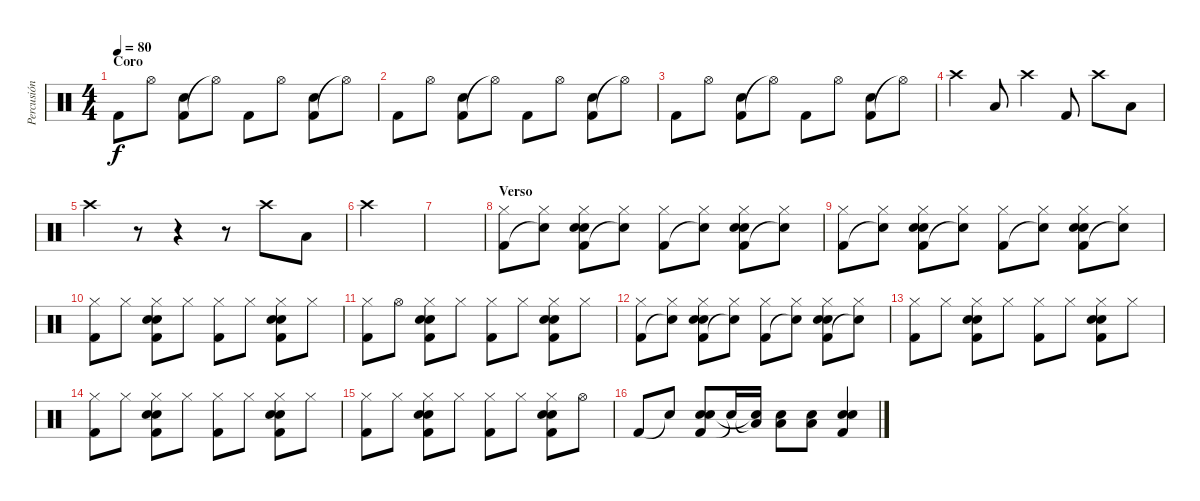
\track ("Percusión" "Percusión") {instrument percussion}
\staff {score}
\articulation defaults
\ts (4 4)
\section ("" "Coro")
\tempo 80
\clef neutral
\ks c "Kick (hit) 2".8{dy f} "Hi-Hat (open)".8
("Kick (hit) 2" "Hand Clap (hit)").8 "Hi-Hat (open)"{t}.8 "Kick (hit) 2".8 "Hi-Hat (open)".8 ("Kick (hit) 2" "Hand Clap (hit)").8 "Hi-Hat (open)"{t}.8 |
"Kick (hit) 2".8 "Hi-Hat (open)".8 ("Kick (hit) 2" "Hand Clap (hit)").8 "Hi-Hat (open)"{t}.8 "Kick (hit) 2".8 "Hi-Hat (open)".8 ("Kick (hit) 2" "Hand Clap (hit)").8 "Hi-Hat (open)"{t}.8 |
"Kick (hit) 2".8 "Hi-Hat (open)".8 ("Kick (hit) 2" "Hand Clap (hit)").8 "Hi-Hat (open)"{t}.8 "Kick (hit) 2".8 "Hi-Hat (open)".8 ("Kick (hit) 2" "Hand Clap (hit)").8 "Hi-Hat (open)"{t}.8 |
"Crash high (hit)".4 "Low Floor Tom (hit)".8 "Crash high (hit)".4 "Kick (hit) 2".8 "Crash high (hit)".8 "Low Tom (hit)".8 |
"Crash high (hit)".4 r.8 r.4 r.8 "Crash high (hit)".8 "Low Tom (hit)".8 |
"Crash high (hit)".2 |
|
\section ("" "Verso")
("Hi-Hat (closed)" "Kick (hit) 2").8 ("Hi-Hat (closed)" "Snare (hit)"{t}).8 ("Hi-Hat (closed)" "Kick (hit) 2" "Electric Snare (hit)" "Hand Clap (hit)").8 ("Hi-Hat (closed)" "Snare (hit)"{t}).8 ("Hi-Hat (closed)" "Kick (hit) 2").8 ("Hi-Hat (closed)" "Snare (hit)"{t}).8 ("Hi-Hat (closed)" "Kick (hit) 2" "Electric Snare (hit)" "Hand Clap (hit)").8 ("Hi-Hat (closed)" "Snare (hit)"{t}).8 |
("Hi-Hat (closed)" "Kick (hit) 2").8 ("Hi-Hat (closed)" "Snare (hit)"{t}).8 ("Hi-Hat (closed)" "Kick (hit) 2" "Electric Snare (hit)" "Hand Clap (hit)").8 ("Hi-Hat (closed)" "Snare (hit)"{t}).8 ("Hi-Hat (closed)" "Kick (hit) 2").8 ("Hi-Hat (closed)" "Snare (hit)"{t}).8 ("Hi-Hat (closed)" "Kick (hit) 2" "Electric Snare (hit)" "Hand Clap (hit)").8 ("Hi-Hat (closed)" "Snare (hit)"{t}).8 |
("Hi-Hat (closed)" "Kick (hit) 2").8 "Hi-Hat (closed)".8 ("Hi-Hat (closed)" "Kick (hit) 2" "Electric Snare (hit)" "Hand Clap (hit)").8 "Hi-Hat (closed)".8 ("Hi-Hat (closed)" "Kick (hit) 2").8 "Hi-Hat (closed)".8 ("Hi-Hat (closed)" "Kick (hit) 2" "Electric Snare (hit)" "Hand Clap (hit)").8 "Hi-Hat (closed)".8 |
("Hi-Hat (closed)" "Kick (hit) 2").8 "Hi-Hat (open)".8 ("Hi-Hat (closed)" "Kick (hit) 2" "Electric Snare (hit)" "Hand Clap (hit)").8 "Hi-Hat (closed)".8 ("Hi-Hat (closed)" "Kick (hit) 2").8 "Hi-Hat (closed)".8 ("Hi-Hat (closed)" "Kick (hit) 2" "Electric Snare (hit)" "Hand Clap (hit)").8 "Hi-Hat (closed)".8 |
("Hi-Hat (closed)" "Kick (hit) 2").8 ("Hi-Hat (closed)" "Snare (hit)"{t}).8 ("Hi-Hat (closed)" "Kick (hit) 2" "Electric Snare (hit)" "Hand Clap (hit)").8 ("Hi-Hat (closed)" "Snare (hit)"{t}).8 ("Hi-Hat (closed)" "Kick (hit) 2").8 ("Hi-Hat (closed)" "Snare (hit)"{t}).8 ("Hi-Hat (closed)" "Kick (hit) 2" "Electric Snare (hit)" "Hand Clap (hit)").8 ("Hi-Hat (closed)" "Snare (hit)"{t}).8 |
("Hi-Hat (closed)" "Kick (hit) 2").8 "Hi-Hat (closed)".8 ("Hi-Hat (closed)" "Kick (hit) 2" "Electric Snare (hit)" "Hand Clap (hit)").8 "Hi-Hat (closed)".8 ("Hi-Hat (closed)" "Kick (hit) 2").8 "Hi-Hat (closed)".8 ("Hi-Hat (closed)" "Kick (hit) 2" "Electric Snare (hit)" "Hand Clap (hit)").8 "Hi-Hat (closed)".8 |
("Hi-Hat (closed)" "Kick (hit) 2").8 "Hi-Hat (closed)".8 ("Hi-Hat (closed)" "Kick (hit) 2" "Electric Snare (hit)" "Hand Clap (hit)").8 "Hi-Hat (closed)".8 ("Hi-Hat (closed)" "Kick (hit) 2").8 "Hi-Hat (closed)".8 ("Hi-Hat (closed)" "Kick (hit) 2" "Electric Snare (hit)" "Hand Clap (hit)").8 "Hi-Hat (closed)".8 |
("Hi-Hat (closed)" "Kick (hit) 2").8 "Hi-Hat (closed)".8 ("Hi-Hat (closed)" "Kick (hit) 2" "Electric Snare (hit)" "Hand Clap (hit)").8 "Hi-Hat (closed)".8 ("Hi-Hat (closed)" "Kick (hit) 2").8 "Hi-Hat (closed)".8 ("Hi-Hat (closed)" "Kick (hit) 2" "Electric Snare (hit)" "Hand Clap (hit)").8 "Hi-Hat (open)".8 |
"Kick (hit) 2".8 "Snare (hit)"{t}.8 ("Kick (hit) 2" "Electric Snare (hit)" "Hand Clap (hit)").8 "Snare (hit)"{t}.16 ("Low Floor Tom (hit)"{t} "Electric Snare (hit)"{t}).16 ("Low Floor Tom (hit)" "Electric Snare (hit)").8 ("Low Floor Tom (hit)" "Electric Snare (hit)").8 ("Kick (hit) 2" "Electric Snare (hit)" "Hand Clap (hit)").4
